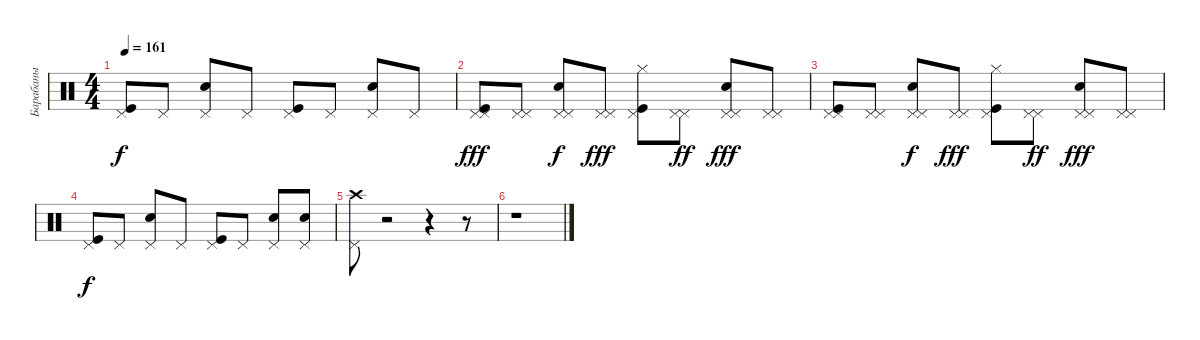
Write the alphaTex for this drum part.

\track ("Барабаны" "Барабаны") {instrument percussion}
\staff {score}
\articulation defaults
\ts (4 4)
\tempo 161
\clef neutral
\ks c
("Kick (hit)" "Pedal Hi-Hat (hit)").8{dy f} "Pedal Hi-Hat (hit)".8 ("Snare (hit) 2" "Pedal Hi-Hat (hit)").8 "Pedal Hi-Hat (hit)".8 ("Kick (hit)" "Pedal Hi-Hat (hit)").8 "Pedal Hi-Hat (hit)".8 ("Snare (hit) 2" "Pedal Hi-Hat (hit)").8 "Pedal Hi-Hat (hit)".8 |
("Pedal Hi-Hat (hit)" "Kick (hit)" "Pedal Hi-Hat (hit)").8{dy fff} ("Pedal Hi-Hat (hit)" "Pedal Hi-Hat (hit)").8 ("Snare (hit) 2" "Pedal Hi-Hat (hit)" "Pedal Hi-Hat (hit)").8{dy f} ("Pedal Hi-Hat (hit)" "Pedal Hi-Hat (hit)").8{dy fff} ("Kick (hit)" "Hi-Hat (closed)" "Pedal Hi-Hat (hit)").8 ("Pedal Hi-Hat (hit)" "Pedal Hi-Hat (hit)").8{dy ff} ("Snare (hit) 2" "Pedal Hi-Hat (hit)" "Pedal Hi-Hat (hit)").8{dy fff} ("Pedal Hi-Hat (hit)" "Pedal Hi-Hat (hit)").8 |
("Kick (hit)" "Pedal Hi-Hat (hit)" "Pedal Hi-Hat (hit)").8 ("Pedal Hi-Hat (hit)" "Pedal Hi-Hat (hit)").8 ("Snare (hit) 2" "Pedal Hi-Hat (hit)" "Pedal Hi-Hat (hit)").8{dy f} ("Pedal Hi-Hat (hit)" "Pedal Hi-Hat (hit)").8{dy fff} ("Kick (hit)" "Pedal Hi-Hat (hit)" "Hi-Hat (closed)").8 ("Pedal Hi-Hat (hit)" "Pedal Hi-Hat (hit)").8{dy ff} ("Snare (hit) 2" "Pedal Hi-Hat (hit)" "Pedal Hi-Hat (hit)").8{dy fff} ("Pedal Hi-Hat (hit)" "Pedal Hi-Hat (hit)").8 |
("Pedal Hi-Hat (hit)" "Kick (hit)").8{dy f} "Pedal Hi-Hat (hit)".8 ("Snare (hit) 2" "Pedal Hi-Hat (hit)").8 "Pedal Hi-Hat (hit)".8 ("Kick (hit)" "Pedal Hi-Hat (hit)").8 "Pedal Hi-Hat (hit)".8 ("Snare (hit) 2" "Pedal Hi-Hat (hit)").8 ("Snare (hit) 2" "Pedal Hi-Hat (hit)").8 |
("Pedal Hi-Hat (hit)" "Crash high (hit)").8 r.2 r.4 r.8 |
r.1
